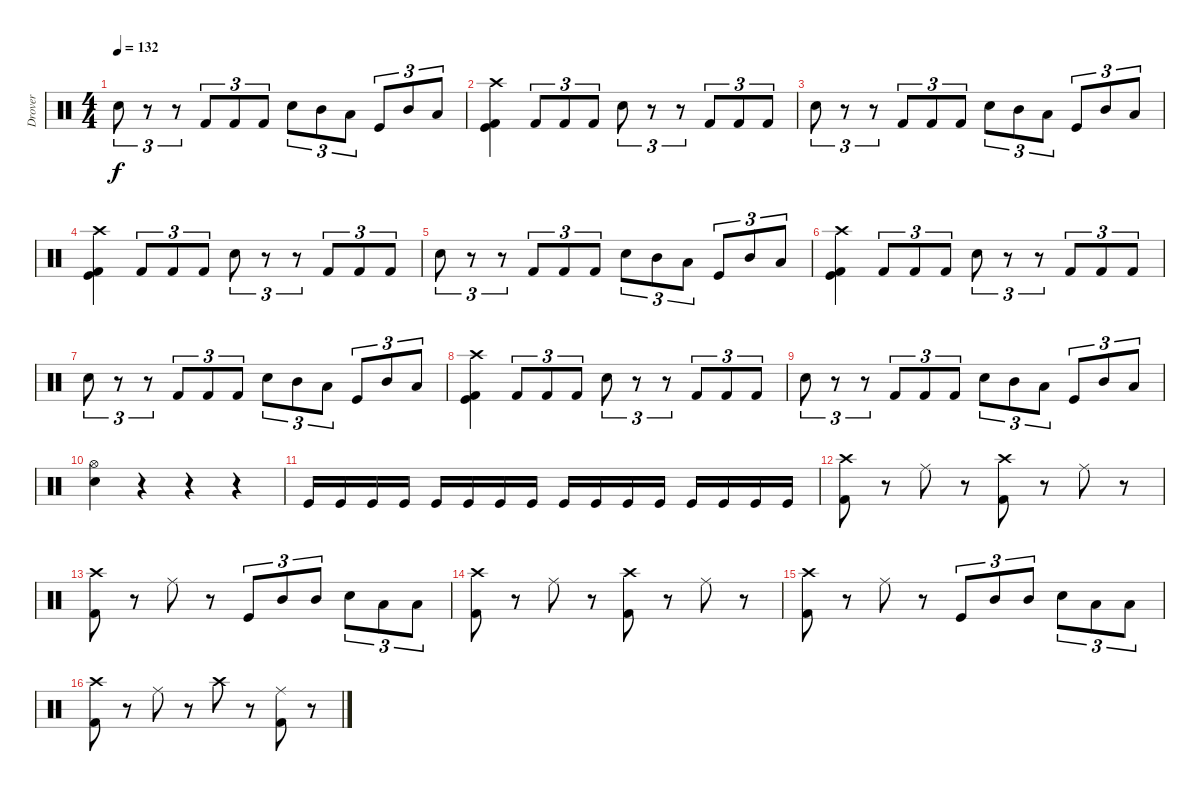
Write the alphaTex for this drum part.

\track ("Drover" "Drover") {instrument percussion}
\staff {score}
\articulation defaults
\ts (4 4)
\tempo 132
\clef neutral
\ks c "Electric Snare (hit)".8{tu (3 2) dy f}
r.8{tu (3 2)} r.8{tu (3 2)} "Kick (hit) 2".8{tu (3 2)} "Kick (hit) 2".8{tu (3 2)} "Kick (hit) 2".8{tu (3 2)} "Snare (hit) 2".8{tu (3 2)} "Mid Tom (hit)".8{tu (3 2)} "Low Floor Tom (hit)".8{tu (3 2)} "Kick (hit)".8{tu (3 2)} "Mid Tom (hit)".8{tu (3 2)} "Low Tom (hit)".8{tu (3 2)} |
("Kick (hit)" "Crash high (hit)" "Kick (hit) 2").4 "Kick (hit) 2".8{tu (3 2)} "Kick (hit) 2".8{tu (3 2)} "Kick (hit) 2".8{tu (3 2)} "Electric Snare (hit)".8{tu (3 2)} r.8{tu (3 2)} r.8{tu (3 2)} "Kick (hit) 2".8{tu (3 2)} "Kick (hit) 2".8{tu (3 2)} "Kick (hit) 2".8{tu (3 2)} |
"Electric Snare (hit)".8{tu (3 2)} r.8{tu (3 2)} r.8{tu (3 2)} "Kick (hit) 2".8{tu (3 2)} "Kick (hit) 2".8{tu (3 2)} "Kick (hit) 2".8{tu (3 2)} "Snare (hit) 2".8{tu (3 2)} "Mid Tom (hit)".8{tu (3 2)} "Low Floor Tom (hit)".8{tu (3 2)} "Kick (hit)".8{tu (3 2)} "Mid Tom (hit)".8{tu (3 2)} "Low Tom (hit)".8{tu (3 2)} |
("Kick (hit)" "Crash high (hit)" "Kick (hit) 2").4 "Kick (hit) 2".8{tu (3 2)} "Kick (hit) 2".8{tu (3 2)} "Kick (hit) 2".8{tu (3 2)} "Electric Snare (hit)".8{tu (3 2)} r.8{tu (3 2)} r.8{tu (3 2)} "Kick (hit) 2".8{tu (3 2)} "Kick (hit) 2".8{tu (3 2)} "Kick (hit) 2".8{tu (3 2)} |
"Electric Snare (hit)".8{tu (3 2)} r.8{tu (3 2)} r.8{tu (3 2)} "Kick (hit) 2".8{tu (3 2)} "Kick (hit) 2".8{tu (3 2)} "Kick (hit) 2".8{tu (3 2)} "Snare (hit) 2".8{tu (3 2)} "Mid Tom (hit)".8{tu (3 2)} "Low Floor Tom (hit)".8{tu (3 2)} "Kick (hit)".8{tu (3 2)} "Mid Tom (hit)".8{tu (3 2)} "Low Tom (hit)".8{tu (3 2)} |
("Kick (hit)" "Crash high (hit)" "Kick (hit) 2").4 "Kick (hit) 2".8{tu (3 2)} "Kick (hit) 2".8{tu (3 2)} "Kick (hit) 2".8{tu (3 2)} "Electric Snare (hit)".8{tu (3 2)} r.8{tu (3 2)} r.8{tu (3 2)} "Kick (hit) 2".8{tu (3 2)} "Kick (hit) 2".8{tu (3 2)} "Kick (hit) 2".8{tu (3 2)} |
"Electric Snare (hit)".8{tu (3 2)} r.8{tu (3 2)} r.8{tu (3 2)} "Kick (hit) 2".8{tu (3 2)} "Kick (hit) 2".8{tu (3 2)} "Kick (hit) 2".8{tu (3 2)} "Snare (hit) 2".8{tu (3 2)} "Mid Tom (hit)".8{tu (3 2)} "Low Floor Tom (hit)".8{tu (3 2)} "Kick (hit)".8{tu (3 2)} "Mid Tom (hit)".8{tu (3 2)} "Low Tom (hit)".8{tu (3 2)} |
("Kick (hit)" "Crash high (hit)" "Kick (hit) 2").4 "Kick (hit) 2".8{tu (3 2)} "Kick (hit) 2".8{tu (3 2)} "Kick (hit) 2".8{tu (3 2)} "Electric Snare (hit)".8{tu (3 2)} r.8{tu (3 2)} r.8{tu (3 2)} "Kick (hit) 2".8{tu (3 2)} "Kick (hit) 2".8{tu (3 2)} "Kick (hit) 2".8{tu (3 2)} |
"Electric Snare (hit)".8{tu (3 2)} r.8{tu (3 2)} r.8{tu (3 2)} "Kick (hit) 2".8{tu (3 2)} "Kick (hit) 2".8{tu (3 2)} "Kick (hit) 2".8{tu (3 2)} "Snare (hit) 2".8{tu (3 2)} "Mid Tom (hit)".8{tu (3 2)} "Low Floor Tom (hit)".8{tu (3 2)} "Kick (hit)".8{tu (3 2)} "Mid Tom (hit)".8{tu (3 2)} "Low Tom (hit)".8{tu (3 2)} |
("Hi-Hat (open)" "Electric Snare (hit)").4 r.4 r.4 r.4 |
"Kick (hit)".16 "Kick (hit)".16 "Kick (hit)".16 "Kick (hit)".16 "Kick (hit)".16 "Kick (hit)".16 "Kick (hit)".16 "Kick (hit)".16 "Kick (hit)".16 "Kick (hit)".16 "Kick (hit)".16 "Kick (hit)".16 "Kick (hit)".16 "Kick (hit)".16 "Kick (hit)".16 "Kick (hit)".16 |
("Crash high (hit)" "Kick (hit) 2").8 r.8 "Ride (middle)".8 r.8 ("Crash high (hit)" "Kick (hit) 2").8 r.8 "Ride (middle)".8 r.8 |
("Crash high (hit)" "Kick (hit) 2").8 r.8 "Ride (middle)".8 r.8 "Kick (hit)".8{tu (3 2)} "Mid Tom (hit)".8{tu (3 2)} "Mid Tom (hit)".8{tu (3 2)} "Snare (hit) 2".8{tu (3 2)} "Low Floor Tom (hit)".8{tu (3 2)} "Low Floor Tom (hit)".8{tu (3 2)} |
("Crash high (hit)" "Kick (hit) 2").8 r.8 "Ride (middle)".8 r.8 ("Crash high (hit)" "Kick (hit) 2").8 r.8 "Ride (middle)".8 r.8 |
("Crash high (hit)" "Kick (hit) 2").8 r.8 "Ride (middle)".8 r.8 "Kick (hit)".8{tu (3 2)} "Mid Tom (hit)".8{tu (3 2)} "Mid Tom (hit)".8{tu (3 2)} "Snare (hit) 2".8{tu (3 2)} "Low Floor Tom (hit)".8{tu (3 2)} "Low Floor Tom (hit)".8{tu (3 2)} |
("Crash high (hit)" "Kick (hit) 2").8 r.8 "Ride (middle)".8 r.8 "Crash high (hit)".8 r.8 ("Ride (middle)" "Kick (hit) 2").8 r.8
